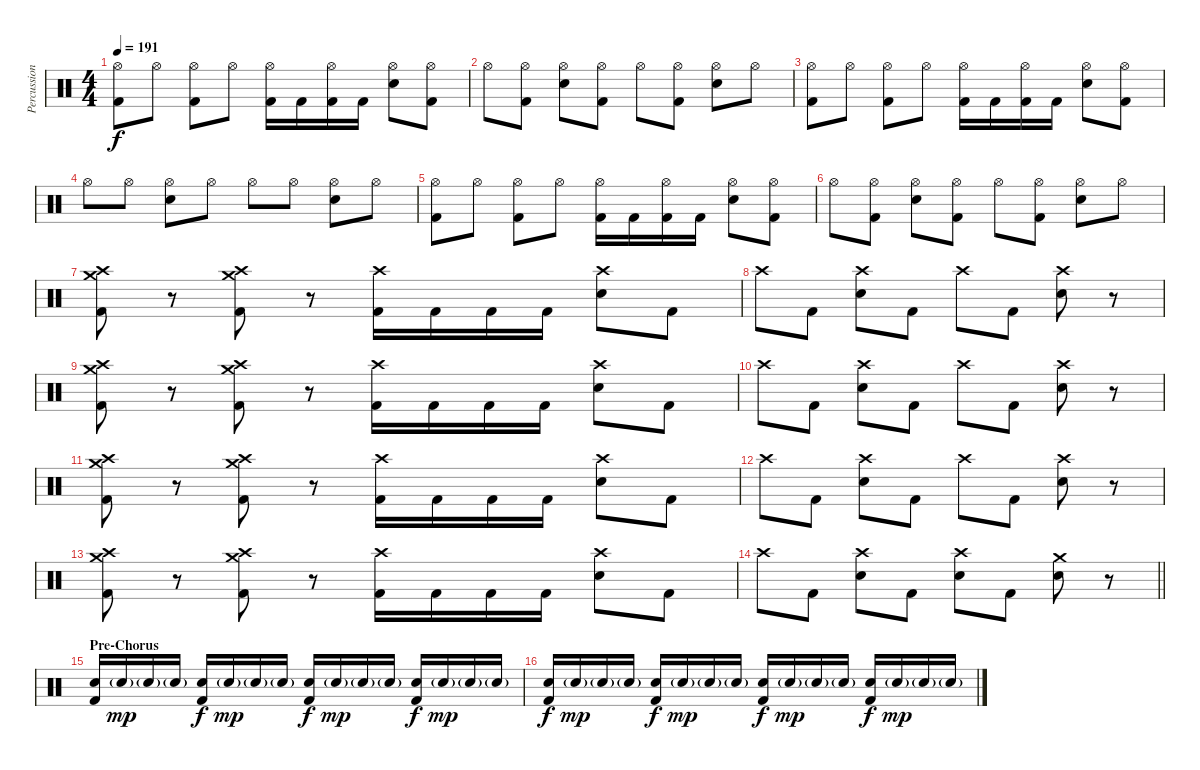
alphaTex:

\track ("Percussion" "Percussion") {instrument percussion}
\staff {score}
\articulation defaults
\ts (4 4)
\tempo 191
\clef neutral
\ks c
("Hi-Hat (open)" "Kick (hit) 2").8{dy f} "Hi-Hat (open)".8 ("Hi-Hat (open)" "Kick (hit) 2").8 "Hi-Hat (open)".8 ("Hi-Hat (open)" "Kick (hit) 2").16 "Kick (hit) 2".16 ("Hi-Hat (open)" "Kick (hit) 2").16 "Kick (hit) 2".16 ("Hi-Hat (open)" "Electric Snare (hit)").8 ("Hi-Hat (open)" "Kick (hit) 2").8 |
"Hi-Hat (open)".8 ("Hi-Hat (open)" "Kick (hit) 2").8 ("Hi-Hat (open)" "Electric Snare (hit)").8 ("Hi-Hat (open)" "Kick (hit) 2").8 "Hi-Hat (open)".8 ("Hi-Hat (open)" "Kick (hit) 2").8 ("Hi-Hat (open)" "Electric Snare (hit)").8 "Hi-Hat (open)".8 |
("Hi-Hat (open)" "Kick (hit) 2").8 "Hi-Hat (open)".8 ("Hi-Hat (open)" "Kick (hit) 2").8 "Hi-Hat (open)".8 ("Hi-Hat (open)" "Kick (hit) 2").16 "Kick (hit) 2".16 ("Hi-Hat (open)" "Kick (hit) 2").16 "Kick (hit) 2".16 ("Hi-Hat (open)" "Electric Snare (hit)").8 ("Hi-Hat (open)" "Kick (hit) 2").8 |
"Hi-Hat (open)".8 "Hi-Hat (open)".8 ("Hi-Hat (open)" "Electric Snare (hit)").8 "Hi-Hat (open)".8 "Hi-Hat (open)".8 "Hi-Hat (open)".8 ("Hi-Hat (open)" "Electric Snare (hit)").8 "Hi-Hat (open)".8 |
("Hi-Hat (open)" "Kick (hit) 2").8 "Hi-Hat (open)".8 ("Hi-Hat (open)" "Kick (hit) 2").8 "Hi-Hat (open)".8 ("Hi-Hat (open)" "Kick (hit) 2").16 "Kick (hit) 2".16 ("Hi-Hat (open)" "Kick (hit) 2").16 "Kick (hit) 2".16 ("Hi-Hat (open)" "Electric Snare (hit)").8 ("Hi-Hat (open)" "Kick (hit) 2").8 |
"Hi-Hat (open)".8 ("Hi-Hat (open)" "Kick (hit) 2").8 ("Hi-Hat (open)" "Electric Snare (hit)").8 ("Hi-Hat (open)" "Kick (hit) 2").8 "Hi-Hat (open)".8 ("Hi-Hat (open)" "Kick (hit) 2").8 ("Hi-Hat (open)" "Electric Snare (hit)").8 "Hi-Hat (open)".8 |
("Crash medium (hit)" "Crash high (hit)" "Kick (hit) 2").8 r.8 ("Crash medium (hit)" "Crash high (hit)" "Kick (hit) 2").8 r.8 ("Crash high (hit)" "Kick (hit) 2").16 "Kick (hit) 2".16 "Kick (hit) 2".16 "Kick (hit) 2".16 ("Crash high (hit)" "Electric Snare (hit)").8 "Kick (hit) 2".8 |
"Crash high (hit)".8 "Kick (hit) 2".8 ("Crash high (hit)" "Electric Snare (hit)").8 "Kick (hit) 2".8 "Crash high (hit)".8 "Kick (hit) 2".8 ("Crash high (hit)" "Electric Snare (hit)").8 r.8 |
("Crash medium (hit)" "Crash high (hit)" "Kick (hit) 2").8 r.8 ("Crash medium (hit)" "Crash high (hit)" "Kick (hit) 2").8 r.8 ("Crash high (hit)" "Kick (hit) 2").16 "Kick (hit) 2".16 "Kick (hit) 2".16 "Kick (hit) 2".16 ("Crash high (hit)" "Electric Snare (hit)").8 "Kick (hit) 2".8 |
"Crash high (hit)".8 "Kick (hit) 2".8 ("Crash high (hit)" "Electric Snare (hit)").8 "Kick (hit) 2".8 "Crash high (hit)".8 "Kick (hit) 2".8 ("Crash high (hit)" "Electric Snare (hit)").8 r.8 |
("Crash medium (hit)" "Crash high (hit)" "Kick (hit) 2").8 r.8 ("Crash medium (hit)" "Crash high (hit)" "Kick (hit) 2").8 r.8 ("Crash high (hit)" "Kick (hit) 2").16 "Kick (hit) 2".16 "Kick (hit) 2".16 "Kick (hit) 2".16 ("Crash high (hit)" "Electric Snare (hit)").8 "Kick (hit) 2".8 |
"Crash high (hit)".8 "Kick (hit) 2".8 ("Crash high (hit)" "Electric Snare (hit)").8 "Kick (hit) 2".8 "Crash high (hit)".8 "Kick (hit) 2".8 ("Crash high (hit)" "Electric Snare (hit)").8 r.8 |
("Crash medium (hit)" "Crash high (hit)" "Kick (hit) 2").8 r.8 ("Crash medium (hit)" "Crash high (hit)" "Kick (hit) 2").8 r.8 ("Crash high (hit)" "Kick (hit) 2").16 "Kick (hit) 2".16 "Kick (hit) 2".16 "Kick (hit) 2".16 ("Crash high (hit)" "Electric Snare (hit)").8 "Kick (hit) 2".8 |
\barLineRight lightlight "Crash high (hit)".8 "Kick (hit) 2".8
("Crash high (hit)" "Electric Snare (hit)").8 "Kick (hit) 2".8 ("Crash high (hit)" "Electric Snare (hit)").8 "Kick (hit) 2".8 ("Crash medium (hit)" "Electric Snare (hit)").8 r.8 |
\section ("" "Pre-Chorus")
("Electric Snare (hit)" "Kick (hit) 2").16 "Electric Snare (hit)"{g}.16{dy mp} "Electric Snare (hit)"{g}.16 "Electric Snare (hit)"{g}.16 ("Electric Snare (hit)" "Kick (hit) 2").16{dy f} "Electric Snare (hit)"{g}.16{dy mp} "Electric Snare (hit)"{g}.16 "Electric Snare (hit)"{g}.16 ("Electric Snare (hit)" "Kick (hit) 2").16{dy f} "Electric Snare (hit)"{g}.16{dy mp} "Electric Snare (hit)"{g}.16 "Electric Snare (hit)"{g}.16 ("Electric Snare (hit)" "Kick (hit) 2").16{dy f} "Electric Snare (hit)"{g}.16{dy mp} "Electric Snare (hit)"{g}.16 "Electric Snare (hit)"{g}.16 |
("Electric Snare (hit)" "Kick (hit) 2").16{dy f} "Electric Snare (hit)"{g}.16{dy mp} "Electric Snare (hit)"{g}.16 "Electric Snare (hit)"{g}.16 ("Electric Snare (hit)" "Kick (hit) 2").16{dy f} "Electric Snare (hit)"{g}.16{dy mp} "Electric Snare (hit)"{g}.16 "Electric Snare (hit)"{g}.16 ("Electric Snare (hit)" "Kick (hit) 2").16{dy f} "Electric Snare (hit)"{g}.16{dy mp} "Electric Snare (hit)"{g}.16 "Electric Snare (hit)"{g}.16 ("Electric Snare (hit)" "Kick (hit) 2").16{dy f} "Electric Snare (hit)"{g}.16{dy mp} "Electric Snare (hit)"{g}.16 "Electric Snare (hit)"{g}.16
